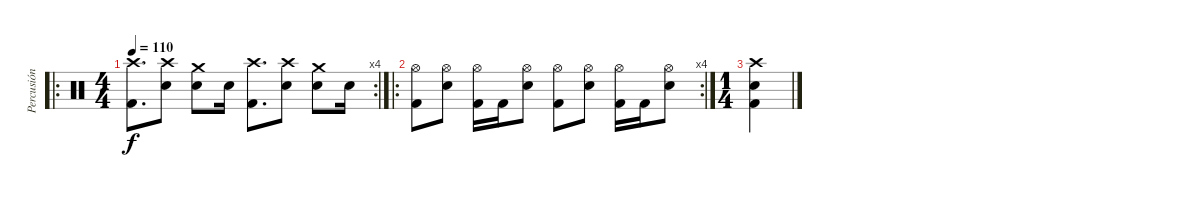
\track ("Percusión" "Percusión") {instrument percussion}
\staff {score}
\articulation defaults
\ro
\rc 4
\ts (4 4)
\tempo 110
\clef neutral
\ks c
("Crash high (hit)" "Kick (hit) 2").8{d dy f} ("Crash high (hit)" "Electric Snare (hit)").8 ("Crash medium (hit)" "Electric Snare (hit)").8 "Electric Snare (hit)".16 ("Crash high (hit)" "Kick (hit) 2").8{d} ("Crash high (hit)" "Electric Snare (hit)").8 ("Crash medium (hit)" "Electric Snare (hit)").8 "Electric Snare (hit)".16 |
\ro
\rc 4
("Hi-Hat (open)" "Kick (hit) 2").8 ("Hi-Hat (open)" "Electric Snare (hit)").8 ("Hi-Hat (open)" "Kick (hit) 2").16 "Kick (hit) 2".16 ("Hi-Hat (open)" "Electric Snare (hit)").8 ("Hi-Hat (open)" "Kick (hit) 2").8 ("Hi-Hat (open)" "Electric Snare (hit)").8 ("Hi-Hat (open)" "Kick (hit) 2").16 "Kick (hit) 2".16 ("Hi-Hat (open)" "Electric Snare (hit)").8 |
\ts (1 4)
("Crash high (hit)" "Electric Snare (hit)" "Kick (hit) 2").4
